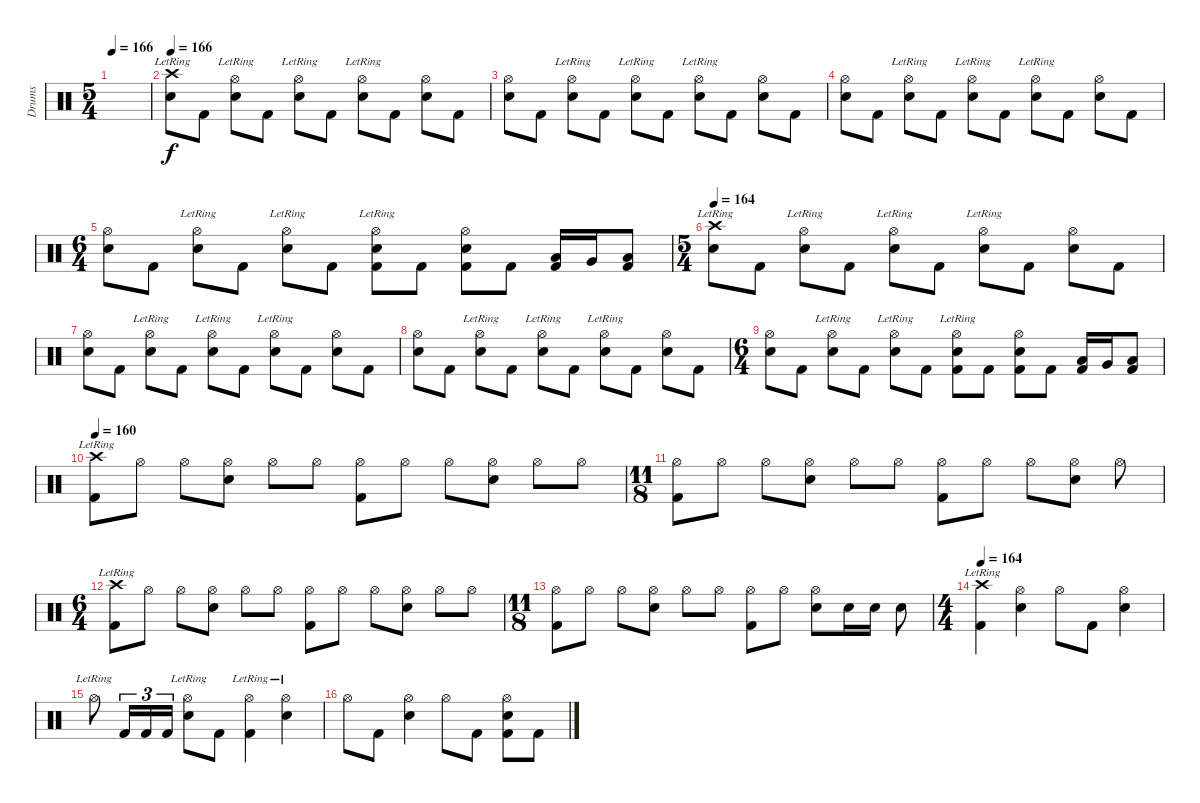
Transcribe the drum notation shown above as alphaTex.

\track ("Drums" "Drums") {instrument percussion}
\staff {score}
\articulation defaults
\ts (5 4)
\tempo 166
\clef neutral
\ks c
|
\tempo 166
("Crash high (hit)"{lr} "Snare (hit) 2").8 "Kick (hit) 2".8 ("Hi-Hat (open)"{lr} "Snare (hit) 2").8 "Kick (hit) 2".8 ("Hi-Hat (open)"{lr} "Snare (hit) 2").8 "Kick (hit) 2".8 ("Hi-Hat (open)"{lr} "Snare (hit) 2").8 "Kick (hit) 2".8 ("Hi-Hat (open)" "Snare (hit) 2").8 "Kick (hit) 2".8 |
("Hi-Hat (open)" "Snare (hit) 2").8 "Kick (hit) 2".8 ("Hi-Hat (open)"{lr} "Snare (hit) 2").8 "Kick (hit) 2".8 ("Hi-Hat (open)"{lr} "Snare (hit) 2").8 "Kick (hit) 2".8 ("Hi-Hat (open)"{lr} "Snare (hit) 2").8 "Kick (hit) 2".8 ("Hi-Hat (open)" "Snare (hit) 2").8 "Kick (hit) 2".8 |
("Hi-Hat (open)" "Snare (hit) 2").8 "Kick (hit) 2".8 ("Hi-Hat (open)"{lr} "Snare (hit) 2").8 "Kick (hit) 2".8 ("Hi-Hat (open)"{lr} "Snare (hit) 2").8 "Kick (hit) 2".8 ("Hi-Hat (open)"{lr} "Snare (hit) 2").8 "Kick (hit) 2".8 ("Hi-Hat (open)" "Snare (hit) 2").8 "Kick (hit) 2".8 |
\ts (6 4)
("Hi-Hat (open)" "Snare (hit) 2").8 "Kick (hit) 2".8 ("Hi-Hat (open)"{lr} "Snare (hit) 2").8 "Kick (hit) 2".8 ("Hi-Hat (open)"{lr} "Snare (hit) 2").8 "Kick (hit) 2".8 ("Hi-Hat (open)"{lr} "Snare (hit) 2" "Kick (hit) 2").8 "Kick (hit) 2".8 ("Hi-Hat (open)" "Snare (hit) 2" "Kick (hit) 2").8 "Kick (hit) 2".8 ("Low Tom (hit)" "Kick (hit) 2").16 "Very Low Tom (hit)".16 ("Low Floor Tom (hit)" "Kick (hit) 2").8 |
\ts (5 4)
\tempo 164
("Crash high (hit)"{lr} "Snare (hit) 2").8 "Kick (hit) 2".8 ("Hi-Hat (open)"{lr} "Snare (hit) 2").8 "Kick (hit) 2".8 ("Hi-Hat (open)"{lr} "Snare (hit) 2").8 "Kick (hit) 2".8 ("Hi-Hat (open)"{lr} "Snare (hit) 2").8 "Kick (hit) 2".8 ("Hi-Hat (open)" "Snare (hit) 2").8 "Kick (hit) 2".8 |
("Hi-Hat (open)" "Snare (hit) 2").8 "Kick (hit) 2".8 ("Hi-Hat (open)"{lr} "Snare (hit) 2").8 "Kick (hit) 2".8 ("Hi-Hat (open)"{lr} "Snare (hit) 2").8 "Kick (hit) 2".8 ("Hi-Hat (open)"{lr} "Snare (hit) 2").8 "Kick (hit) 2".8 ("Hi-Hat (open)" "Snare (hit) 2").8 "Kick (hit) 2".8 |
("Hi-Hat (open)" "Snare (hit) 2").8 "Kick (hit) 2".8 ("Hi-Hat (open)"{lr} "Snare (hit) 2").8 "Kick (hit) 2".8 ("Hi-Hat (open)"{lr} "Snare (hit) 2").8 "Kick (hit) 2".8 ("Hi-Hat (open)"{lr} "Snare (hit) 2").8 "Kick (hit) 2".8 ("Hi-Hat (open)" "Snare (hit) 2").8 "Kick (hit) 2".8 |
\ts (6 4)
("Hi-Hat (open)" "Snare (hit) 2").8 "Kick (hit) 2".8 ("Hi-Hat (open)"{lr} "Snare (hit) 2").8 "Kick (hit) 2".8 ("Hi-Hat (open)"{lr} "Snare (hit) 2").8 "Kick (hit) 2".8 ("Hi-Hat (open)"{lr} "Snare (hit) 2" "Kick (hit) 2").8 "Kick (hit) 2".8 ("Hi-Hat (open)" "Snare (hit) 2" "Kick (hit) 2").8 "Kick (hit) 2".8 ("Low Tom (hit)" "Kick (hit) 2").16 "Very Low Tom (hit)".16 ("Low Floor Tom (hit)" "Kick (hit) 2").8 |
\tempo 160
("Crash high (hit)"{lr} "Kick (hit) 2").8 "Hi-Hat (open)".8 "Hi-Hat (open)".8 ("Hi-Hat (open)" "Snare (hit) 2").8 "Hi-Hat (open)".8 "Hi-Hat (open)".8 ("Hi-Hat (open)" "Kick (hit) 2").8 "Hi-Hat (open)".8 "Hi-Hat (open)".8 ("Hi-Hat (open)" "Snare (hit) 2").8 "Hi-Hat (open)".8 "Hi-Hat (open)".8 |
\ts (11 8)
("Hi-Hat (open)" "Kick (hit) 2").8 "Hi-Hat (open)".8 "Hi-Hat (open)".8 ("Hi-Hat (open)" "Snare (hit) 2").8 "Hi-Hat (open)".8 "Hi-Hat (open)".8 ("Hi-Hat (open)" "Kick (hit) 2").8 "Hi-Hat (open)".8 "Hi-Hat (open)".8 ("Hi-Hat (open)" "Snare (hit) 2").8 "Hi-Hat (open)".8 |
\ts (6 4)
("Crash high (hit)"{lr} "Kick (hit) 2").8 "Hi-Hat (open)".8 "Hi-Hat (open)".8 ("Hi-Hat (open)" "Snare (hit) 2").8 "Hi-Hat (open)".8 "Hi-Hat (open)".8 ("Hi-Hat (open)" "Kick (hit) 2").8 "Hi-Hat (open)".8 "Hi-Hat (open)".8 ("Hi-Hat (open)" "Snare (hit) 2").8 "Hi-Hat (open)".8 "Hi-Hat (open)".8 |
\ts (11 8)
("Hi-Hat (open)" "Kick (hit) 2").8 "Hi-Hat (open)".8 "Hi-Hat (open)".8 ("Hi-Hat (open)" "Snare (hit) 2").8 "Hi-Hat (open)".8 "Hi-Hat (open)".8 ("Hi-Hat (open)" "Kick (hit) 2").8 "Hi-Hat (open)".8 ("Hi-Hat (open)" "Snare (hit) 2").8 "Snare (hit) 2".16 "Snare (hit) 2".16 "Snare (hit) 2".8 |
\ts (4 4)
\tempo 164
("Crash high (hit)"{lr} "Kick (hit) 2").4 ("Hi-Hat (open)" "Snare (hit) 2").4 "Hi-Hat (open)".8 "Kick (hit) 2".8 ("Hi-Hat (open)" "Snare (hit) 2").4 |
"Hi-Hat (open)"{lr}.8 "Kick (hit) 2".16{tu (3 2)} "Kick (hit) 2".16{tu (3 2)} "Kick (hit) 2".16{tu (3 2)} ("Hi-Hat (open)"{lr} "Snare (hit) 2").8 "Kick (hit) 2".8 ("Hi-Hat (open)"{lr} "Kick (hit) 2").4 ("Hi-Hat (open)"{lr} "Snare (hit) 2").4 |
"Hi-Hat (open)".8 "Kick (hit) 2".8 ("Hi-Hat (open)" "Snare (hit) 2").4 "Hi-Hat (open)".8 "Kick (hit) 2".8 ("Hi-Hat (open)" "Snare (hit) 2" "Kick (hit) 2").8 "Kick (hit) 2".8
